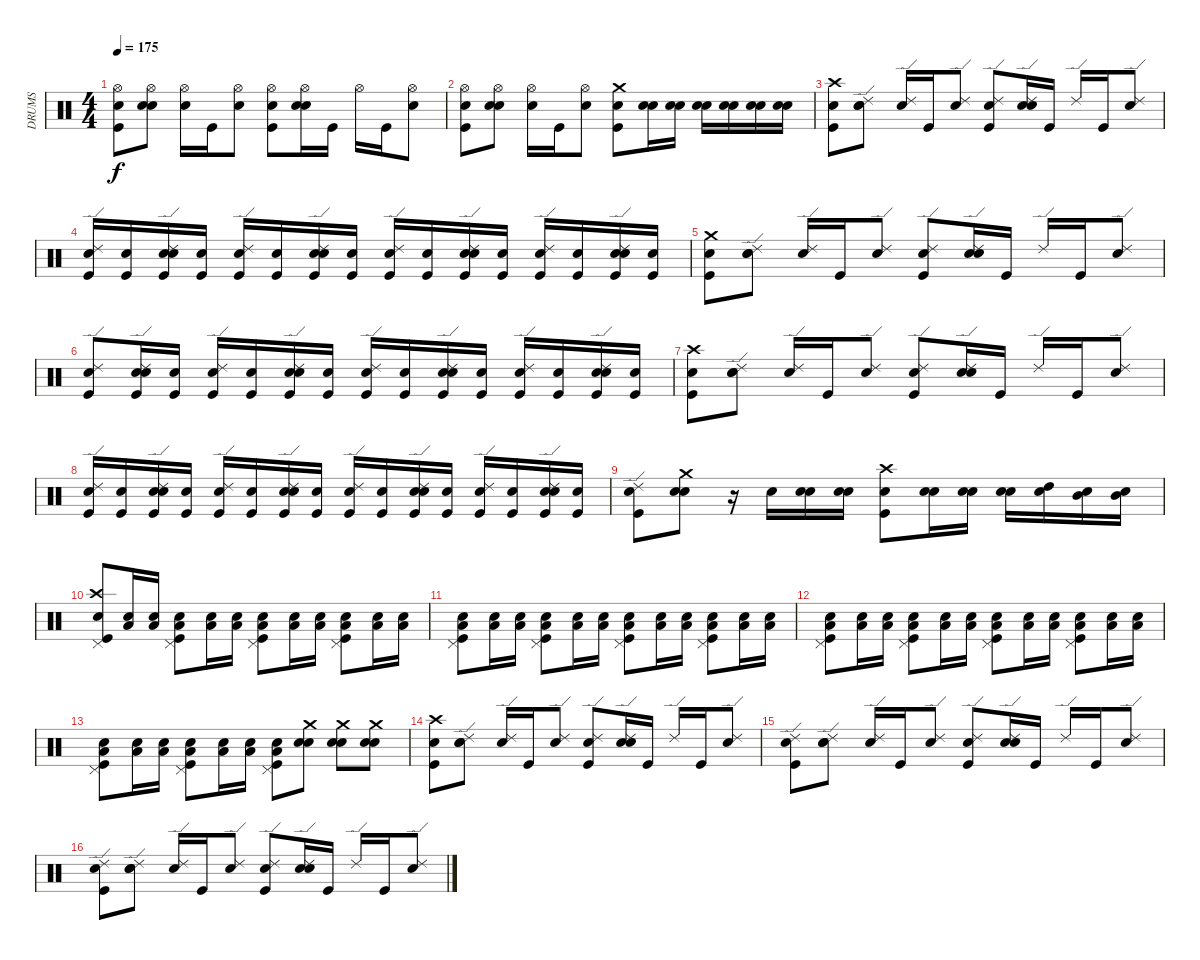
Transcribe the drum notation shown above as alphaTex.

\track ("DRUMS" "DRUMS") {instrument percussion}
\staff {score}
\articulation defaults
\ts (4 4)
\tempo 175
\clef neutral
\ks c
("Snare (hit)" "Kick (hit)" "Hi-Hat (open)").8{dy f} ("Snare (hit)" "Snare (hit) 2" "Hi-Hat (open)").8 ("Snare (hit)" "Hi-Hat (open)").16 "Kick (hit)".16 ("Snare (hit) 2" "Hi-Hat (open)").8 ("Snare (hit)" "Kick (hit)" "Hi-Hat (open)").8 ("Snare (hit)" "Snare (hit) 2" "Hi-Hat (open)").16 "Kick (hit)".16 "Hi-Hat (open)".16 "Kick (hit)".16 ("Snare (hit) 2" "Hi-Hat (open)").8 |
("Snare (hit)" "Kick (hit)" "Hi-Hat (open)").8 ("Snare (hit)" "Snare (hit) 2" "Hi-Hat (open)").8 ("Snare (hit)" "Hi-Hat (open)").16 "Kick (hit)".16 ("Snare (hit) 2" "Hi-Hat (open)").8 ("Snare (hit)" "Kick (hit)" "Crash medium (hit)").8 ("Snare (hit)" "Snare (hit) 2").16 ("Snare (hit)" "Snare (hit) 2").16 ("Snare (hit)" "Snare (hit) 2").16 ("Snare (hit)" "Snare (hit) 2").16 ("Snare (hit)" "Snare (hit) 2").16 ("Snare (hit)" "Snare (hit) 2").16 |
("Snare (hit)" "Crash high (hit)" "Kick (hit)").8 ("Snare (hit)" "Ride (edge) 2" "Snare (hit) 2").8 ("Snare (hit)" "Ride (edge) 2").16 "Kick (hit)".16 ("Ride (edge) 2" "Snare (hit) 2").8 ("Snare (hit)" "Ride (edge) 2" "Kick (hit)").8 ("Snare (hit)" "Ride (edge) 2" "Snare (hit) 2").16 "Kick (hit)".16 "Ride (edge) 2".16 "Kick (hit)".16 ("Ride (edge) 2" "Snare (hit) 2").8 |
("Snare (hit)" "Ride (edge) 2" "Kick (hit)").16 ("Snare (hit)" "Kick (hit)").16 ("Snare (hit)" "Ride (edge) 2" "Snare (hit) 2" "Kick (hit)").16 ("Snare (hit)" "Kick (hit)").16 ("Snare (hit)" "Ride (edge) 2" "Kick (hit)").16 ("Snare (hit)" "Kick (hit)").16 ("Snare (hit)" "Ride (edge) 2" "Snare (hit) 2" "Kick (hit)").16 ("Snare (hit)" "Kick (hit)").16 ("Snare (hit)" "Ride (edge) 2" "Kick (hit)").16 ("Snare (hit)" "Kick (hit)").16 ("Snare (hit)" "Ride (edge) 2" "Snare (hit) 2" "Kick (hit)").16 ("Snare (hit)" "Kick (hit)").16 ("Snare (hit)" "Ride (edge) 2" "Kick (hit)").16 ("Snare (hit)" "Kick (hit)").16 ("Snare (hit)" "Ride (edge) 2" "Snare (hit) 2" "Kick (hit)").16 ("Snare (hit)" "Kick (hit)").16 |
("Snare (hit)" "Kick (hit)" "Crash medium (hit)").8 ("Snare (hit)" "Snare (hit) 2" "Ride (edge) 2").8 ("Snare (hit)" "Ride (edge) 2").16 "Kick (hit)".16 ("Snare (hit) 2" "Ride (edge) 2").8 ("Snare (hit)" "Kick (hit)" "Ride (edge) 2").8 ("Snare (hit)" "Snare (hit) 2" "Ride (edge) 2").16 "Kick (hit)".16 "Ride (edge) 2".16 "Kick (hit)".16 ("Snare (hit) 2" "Ride (edge) 2").8 |
("Snare (hit)" "Kick (hit)" "Ride (edge) 2").8 ("Snare (hit)" "Kick (hit)" "Ride (edge) 2" "Snare (hit) 2").16 ("Snare (hit)" "Kick (hit)").16 ("Snare (hit)" "Kick (hit)" "Ride (edge) 2").16 ("Snare (hit)" "Kick (hit)").16 ("Snare (hit)" "Kick (hit)" "Ride (edge) 2" "Snare (hit) 2").16 ("Snare (hit)" "Kick (hit)").16 ("Snare (hit)" "Kick (hit)" "Ride (edge) 2").16 ("Snare (hit)" "Kick (hit)").16 ("Snare (hit)" "Kick (hit)" "Ride (edge) 2" "Snare (hit) 2").16 ("Snare (hit)" "Kick (hit)").16 ("Snare (hit)" "Kick (hit)" "Ride (edge) 2").16 ("Snare (hit)" "Kick (hit)").16 ("Snare (hit)" "Kick (hit)" "Ride (edge) 2" "Snare (hit) 2").16 ("Snare (hit)" "Kick (hit)").16 |
("Snare (hit)" "Crash high (hit)" "Kick (hit)").8 ("Snare (hit)" "Ride (edge) 2" "Snare (hit) 2").8 ("Snare (hit)" "Ride (edge) 2").16 "Kick (hit)".16 ("Ride (edge) 2" "Snare (hit) 2").8 ("Snare (hit)" "Ride (edge) 2" "Kick (hit)").8 ("Snare (hit)" "Ride (edge) 2" "Snare (hit) 2").16 "Kick (hit)".16 "Ride (edge) 2".16 "Kick (hit)".16 ("Ride (edge) 2" "Snare (hit) 2").8 |
("Snare (hit)" "Ride (edge) 2" "Kick (hit)").16 ("Snare (hit)" "Kick (hit)").16 ("Snare (hit)" "Ride (edge) 2" "Snare (hit) 2" "Kick (hit)").16 ("Snare (hit)" "Kick (hit)").16 ("Snare (hit)" "Ride (edge) 2" "Kick (hit)").16 ("Snare (hit)" "Kick (hit)").16 ("Snare (hit)" "Ride (edge) 2" "Snare (hit) 2" "Kick (hit)").16 ("Snare (hit)" "Kick (hit)").16 ("Snare (hit)" "Ride (edge) 2" "Kick (hit)").16 ("Snare (hit)" "Kick (hit)").16 ("Snare (hit)" "Ride (edge) 2" "Snare (hit) 2" "Kick (hit)").16 ("Snare (hit)" "Kick (hit)").16 ("Snare (hit)" "Ride (edge) 2" "Kick (hit)").16 ("Snare (hit)" "Kick (hit)").16 ("Snare (hit)" "Ride (edge) 2" "Snare (hit) 2" "Kick (hit)").16 ("Snare (hit)" "Kick (hit)").16 |
("Snare (hit)" "Ride (edge) 2" "Kick (hit)").8 ("Snare (hit)" "Crash medium (hit)" "Snare (hit) 2").8 r.16 "Snare (hit) 2".16 ("Snare (hit)" "Snare (hit) 2").16 ("Snare (hit)" "Snare (hit) 2").16 ("Snare (hit)" "Crash high (hit)" "Kick (hit)").8 ("Snare (hit)" "Snare (hit) 2").16 ("Snare (hit)" "Snare (hit) 2").16 ("Snare (hit)" "Snare (hit) 2").16 ("Snare (hit)" "High Tom (hit)").16 ("Snare (hit)" "Mid Tom (hit)").16 ("Snare (hit)" "Mid Tom (hit)").16 |
("Snare (hit)" "Kick (hit)" "Crash high (hit)" "Pedal Hi-Hat (hit)").8 ("Snare (hit)" "Low Tom (hit)").16 ("Snare (hit)" "Low Tom (hit)").16 ("Snare (hit)" "Kick (hit)" "Low Tom (hit)" "Pedal Hi-Hat (hit)").8 ("Snare (hit)" "Low Tom (hit)").16 ("Snare (hit)" "Low Tom (hit)").16 ("Snare (hit)" "Kick (hit)" "Low Tom (hit)" "Pedal Hi-Hat (hit)").8 ("Snare (hit)" "Low Tom (hit)").16 ("Snare (hit)" "Low Tom (hit)").16 ("Snare (hit)" "Kick (hit)" "Low Tom (hit)" "Pedal Hi-Hat (hit)").8 ("Snare (hit)" "Low Tom (hit)").16 ("Snare (hit)" "Low Tom (hit)").16 |
("Snare (hit)" "Low Tom (hit)" "Kick (hit)" "Pedal Hi-Hat (hit)").8 ("Snare (hit)" "Low Tom (hit)").16 ("Snare (hit)" "Low Tom (hit)").16 ("Snare (hit)" "Low Tom (hit)" "Kick (hit)" "Pedal Hi-Hat (hit)").8 ("Snare (hit)" "Low Tom (hit)").16 ("Snare (hit)" "Low Tom (hit)").16 ("Snare (hit)" "Low Tom (hit)" "Kick (hit)" "Pedal Hi-Hat (hit)").8 ("Snare (hit)" "Low Tom (hit)").16 ("Snare (hit)" "Low Tom (hit)").16 ("Snare (hit)" "Low Tom (hit)" "Kick (hit)" "Pedal Hi-Hat (hit)").8 ("Snare (hit)" "Low Tom (hit)").16 ("Snare (hit)" "Low Tom (hit)").16 |
("Snare (hit)" "Low Tom (hit)" "Kick (hit)" "Pedal Hi-Hat (hit)").8 ("Snare (hit)" "Low Tom (hit)").16 ("Snare (hit)" "Low Tom (hit)").16 ("Snare (hit)" "Low Tom (hit)" "Kick (hit)" "Pedal Hi-Hat (hit)").8 ("Snare (hit)" "Low Tom (hit)").16 ("Snare (hit)" "Low Tom (hit)").16 ("Snare (hit)" "Low Tom (hit)" "Kick (hit)" "Pedal Hi-Hat (hit)").8 ("Snare (hit)" "Low Tom (hit)").16 ("Snare (hit)" "Low Tom (hit)").16 ("Snare (hit)" "Low Tom (hit)" "Kick (hit)" "Pedal Hi-Hat (hit)").8 ("Snare (hit)" "Low Tom (hit)").16 ("Snare (hit)" "Low Tom (hit)").16 |
("Snare (hit)" "Low Tom (hit)" "Kick (hit)" "Pedal Hi-Hat (hit)").8 ("Snare (hit)" "Low Tom (hit)").16 ("Snare (hit)" "Low Tom (hit)").16 ("Snare (hit)" "Low Tom (hit)" "Kick (hit)" "Pedal Hi-Hat (hit)").8 ("Snare (hit)" "Low Tom (hit)").16 ("Snare (hit)" "Low Tom (hit)").16 ("Snare (hit)" "Low Tom (hit)" "Kick (hit)" "Pedal Hi-Hat (hit)").8 ("Snare (hit)" "Snare (hit) 2" "Crash medium (hit)").8 ("Snare (hit)" "Snare (hit) 2" "Crash medium (hit)").8 ("Snare (hit)" "Snare (hit) 2" "Crash medium (hit)").8 |
("Snare (hit)" "Crash high (hit)" "Kick (hit)").8 ("Snare (hit)" "Ride (edge) 2" "Snare (hit) 2").8 ("Snare (hit)" "Ride (edge) 2").16 "Kick (hit)".16 ("Ride (edge) 2" "Snare (hit) 2").8 ("Snare (hit)" "Ride (edge) 2" "Kick (hit)").8 ("Snare (hit)" "Ride (edge) 2" "Snare (hit) 2").16 "Kick (hit)".16 "Ride (edge) 2".16 "Kick (hit)".16 ("Ride (edge) 2" "Snare (hit) 2").8 |
("Snare (hit)" "Kick (hit)" "Ride (edge) 2").8 ("Snare (hit)" "Snare (hit) 2" "Ride (edge) 2").8 ("Snare (hit)" "Ride (edge) 2").16 "Kick (hit)".16 ("Snare (hit) 2" "Ride (edge) 2").8 ("Snare (hit)" "Kick (hit)" "Ride (edge) 2").8 ("Snare (hit)" "Snare (hit) 2" "Ride (edge) 2").16 "Kick (hit)".16 "Ride (edge) 2".16 "Kick (hit)".16 ("Snare (hit) 2" "Ride (edge) 2").8 |
("Snare (hit)" "Ride (edge) 2" "Kick (hit)").8 ("Snare (hit)" "Ride (edge) 2" "Snare (hit) 2").8 ("Snare (hit)" "Ride (edge) 2").16 "Kick (hit)".16 ("Ride (edge) 2" "Snare (hit) 2").8 ("Snare (hit)" "Ride (edge) 2" "Kick (hit)").8 ("Snare (hit)" "Ride (edge) 2" "Snare (hit) 2").16 "Kick (hit)".16 "Ride (edge) 2".16 "Kick (hit)".16 ("Ride (edge) 2" "Snare (hit) 2").8
